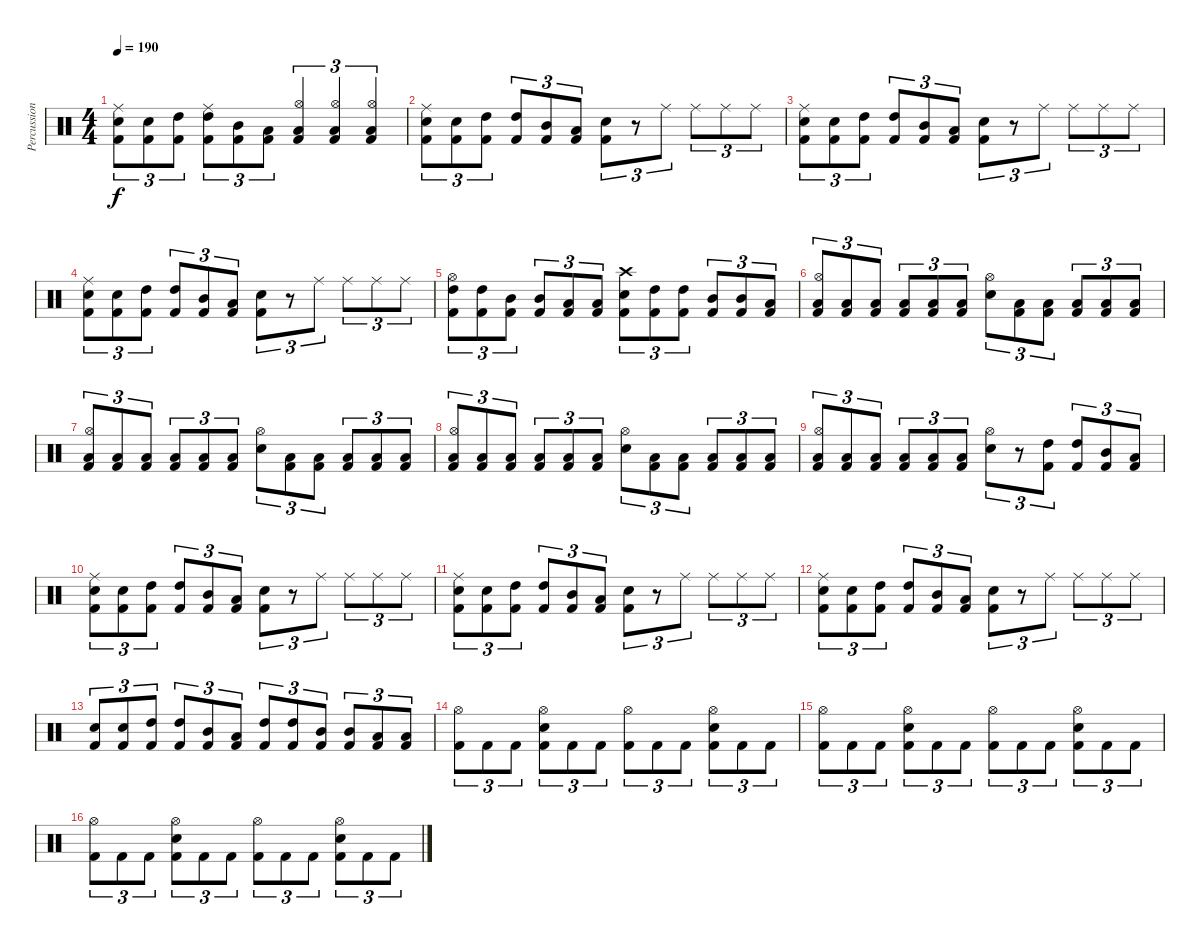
\track ("Percussions" "Percussion") {instrument percussion}
\staff {score}
\articulation defaults
\ts (4 4)
\tempo 190
\clef neutral
\ks c
("Ride (middle)" "Snare (hit) 2" "Kick (hit) 2").8{tu (3 2) dy f} ("Snare (hit) 2" "Kick (hit) 2").8{tu (3 2)} ("High Tom (hit)" "Kick (hit) 2").8{tu (3 2)} ("Ride (middle)" "High Tom (hit)" "Kick (hit) 2").8{tu (3 2)} ("Mid Tom (hit)" "Kick (hit) 2").8{tu (3 2)} ("Low Tom (hit)" "Kick (hit) 2").8{tu (3 2)} ("Hi-Hat (open)" "Low Floor Tom (hit)" "Kick (hit) 2").4{tu (3 2)} ("Hi-Hat (open)" "Low Floor Tom (hit)" "Kick (hit) 2").4{tu (3 2)} ("Hi-Hat (open)" "Low Floor Tom (hit)" "Kick (hit) 2").4{tu (3 2)} |
("Ride (middle)" "Snare (hit) 2" "Kick (hit) 2").8{tu (3 2)} ("Snare (hit) 2" "Kick (hit) 2").8{tu (3 2)} ("High Tom (hit)" "Kick (hit) 2").8{tu (3 2)} ("High Tom (hit)" "Kick (hit) 2").8{tu (3 2)} ("Mid Tom (hit)" "Kick (hit) 2").8{tu (3 2)} ("Low Tom (hit)" "Kick (hit) 2").8{tu (3 2)} ("Snare (hit) 2" "Kick (hit) 2").8{tu (3 2)} r.8{tu (3 2)} "Ride (middle)".8{tu (3 2)} "Ride (middle)".8{tu (3 2)} "Ride (middle)".8{tu (3 2)} "Ride (middle)".8{tu (3 2)} |
("Ride (middle)" "Snare (hit) 2" "Kick (hit) 2").8{tu (3 2)} ("Snare (hit) 2" "Kick (hit) 2").8{tu (3 2)} ("High Tom (hit)" "Kick (hit) 2").8{tu (3 2)} ("High Tom (hit)" "Kick (hit) 2").8{tu (3 2)} ("Mid Tom (hit)" "Kick (hit) 2").8{tu (3 2)} ("Low Tom (hit)" "Kick (hit) 2").8{tu (3 2)} ("Snare (hit) 2" "Kick (hit) 2").8{tu (3 2)} r.8{tu (3 2)} "Ride (middle)".8{tu (3 2)} "Ride (middle)".8{tu (3 2)} "Ride (middle)".8{tu (3 2)} "Ride (middle)".8{tu (3 2)} |
("Ride (middle)" "Snare (hit) 2" "Kick (hit) 2").8{tu (3 2)} ("Snare (hit) 2" "Kick (hit) 2").8{tu (3 2)} ("High Tom (hit)" "Kick (hit) 2").8{tu (3 2)} ("High Tom (hit)" "Kick (hit) 2").8{tu (3 2)} ("Mid Tom (hit)" "Kick (hit) 2").8{tu (3 2)} ("Low Tom (hit)" "Kick (hit) 2").8{tu (3 2)} ("Snare (hit) 2" "Kick (hit) 2").8{tu (3 2)} r.8{tu (3 2)} "Ride (middle)".8{tu (3 2)} "Ride (middle)".8{tu (3 2)} "Ride (middle)".8{tu (3 2)} "Ride (middle)".8{tu (3 2)} |
("Hi-Hat (open)" "High Tom (hit)" "Kick (hit) 2").8{tu (3 2)} ("High Tom (hit)" "Kick (hit) 2").8{tu (3 2)} ("Mid Tom (hit)" "Kick (hit) 2").8{tu (3 2)} ("Mid Tom (hit)" "Kick (hit) 2").8{tu (3 2)} ("Low Tom (hit)" "Kick (hit) 2").8{tu (3 2)} ("Low Tom (hit)" "Kick (hit) 2").8{tu (3 2)} ("Crash high (hit)" "Snare (hit) 2" "Kick (hit) 2").8{tu (3 2)} ("High Tom (hit)" "Kick (hit) 2").8{tu (3 2)} ("High Tom (hit)" "Kick (hit) 2").8{tu (3 2)} ("Mid Tom (hit)" "Kick (hit) 2").8{tu (3 2)} ("Mid Tom (hit)" "Kick (hit) 2").8{tu (3 2)} ("Low Tom (hit)" "Kick (hit) 2").8{tu (3 2)} |
("Hi-Hat (open)" "Low Floor Tom (hit)" "Kick (hit) 2").8{tu (3 2)} ("Low Floor Tom (hit)" "Kick (hit) 2").8{tu (3 2)} ("Low Floor Tom (hit)" "Kick (hit) 2").8{tu (3 2)} ("Low Floor Tom (hit)" "Kick (hit) 2").8{tu (3 2)} ("Low Floor Tom (hit)" "Kick (hit) 2").8{tu (3 2)} ("Low Floor Tom (hit)" "Kick (hit) 2").8{tu (3 2)} ("Hi-Hat (open)" "Snare (hit) 2").8{tu (3 2)} ("Low Floor Tom (hit)" "Kick (hit) 2").8{tu (3 2)} ("Low Floor Tom (hit)" "Kick (hit) 2").8{tu (3 2)} ("Low Floor Tom (hit)" "Kick (hit) 2").8{tu (3 2)} ("Low Floor Tom (hit)" "Kick (hit) 2").8{tu (3 2)} ("Low Floor Tom (hit)" "Kick (hit) 2").8{tu (3 2)} |
("Hi-Hat (open)" "Low Floor Tom (hit)" "Kick (hit) 2").8{tu (3 2)} ("Low Floor Tom (hit)" "Kick (hit) 2").8{tu (3 2)} ("Low Floor Tom (hit)" "Kick (hit) 2").8{tu (3 2)} ("Low Floor Tom (hit)" "Kick (hit) 2").8{tu (3 2)} ("Low Floor Tom (hit)" "Kick (hit) 2").8{tu (3 2)} ("Low Floor Tom (hit)" "Kick (hit) 2").8{tu (3 2)} ("Hi-Hat (open)" "Snare (hit) 2").8{tu (3 2)} ("Low Floor Tom (hit)" "Kick (hit) 2").8{tu (3 2)} ("Low Floor Tom (hit)" "Kick (hit) 2").8{tu (3 2)} ("Low Floor Tom (hit)" "Kick (hit) 2").8{tu (3 2)} ("Low Floor Tom (hit)" "Kick (hit) 2").8{tu (3 2)} ("Low Floor Tom (hit)" "Kick (hit) 2").8{tu (3 2)} |
("Hi-Hat (open)" "Low Floor Tom (hit)" "Kick (hit) 2").8{tu (3 2)} ("Low Floor Tom (hit)" "Kick (hit) 2").8{tu (3 2)} ("Low Floor Tom (hit)" "Kick (hit) 2").8{tu (3 2)} ("Low Floor Tom (hit)" "Kick (hit) 2").8{tu (3 2)} ("Low Floor Tom (hit)" "Kick (hit) 2").8{tu (3 2)} ("Low Floor Tom (hit)" "Kick (hit) 2").8{tu (3 2)} ("Hi-Hat (open)" "Snare (hit) 2").8{tu (3 2)} ("Low Floor Tom (hit)" "Kick (hit) 2").8{tu (3 2)} ("Low Floor Tom (hit)" "Kick (hit) 2").8{tu (3 2)} ("Low Floor Tom (hit)" "Kick (hit) 2").8{tu (3 2)} ("Low Floor Tom (hit)" "Kick (hit) 2").8{tu (3 2)} ("Low Floor Tom (hit)" "Kick (hit) 2").8{tu (3 2)} |
("Hi-Hat (open)" "Low Floor Tom (hit)" "Kick (hit) 2").8{tu (3 2)} ("Low Floor Tom (hit)" "Kick (hit) 2").8{tu (3 2)} ("Low Floor Tom (hit)" "Kick (hit) 2").8{tu (3 2)} ("Low Floor Tom (hit)" "Kick (hit) 2").8{tu (3 2)} ("Low Floor Tom (hit)" "Kick (hit) 2").8{tu (3 2)} ("Low Floor Tom (hit)" "Kick (hit) 2").8{tu (3 2)} ("Hi-Hat (open)" "Snare (hit) 2").8{tu (3 2)} r.8{tu (3 2)} ("High Tom (hit)" "Kick (hit) 2").8{tu (3 2)} ("High Tom (hit)" "Kick (hit) 2").8{tu (3 2)} ("Mid Tom (hit)" "Kick (hit) 2").8{tu (3 2)} ("Low Tom (hit)" "Kick (hit) 2").8{tu (3 2)} |
("Ride (middle)" "Snare (hit) 2" "Kick (hit) 2").8{tu (3 2)} ("Snare (hit) 2" "Kick (hit) 2").8{tu (3 2)} ("High Tom (hit)" "Kick (hit) 2").8{tu (3 2)} ("High Tom (hit)" "Kick (hit) 2").8{tu (3 2)} ("Mid Tom (hit)" "Kick (hit) 2").8{tu (3 2)} ("Low Tom (hit)" "Kick (hit) 2").8{tu (3 2)} ("Snare (hit) 2" "Kick (hit) 2").8{tu (3 2)} r.8{tu (3 2)} "Ride (middle)".8{tu (3 2)} "Ride (middle)".8{tu (3 2)} "Ride (middle)".8{tu (3 2)} "Ride (middle)".8{tu (3 2)} |
("Ride (middle)" "Snare (hit) 2" "Kick (hit) 2").8{tu (3 2)} ("Snare (hit) 2" "Kick (hit) 2").8{tu (3 2)} ("High Tom (hit)" "Kick (hit) 2").8{tu (3 2)} ("High Tom (hit)" "Kick (hit) 2").8{tu (3 2)} ("Mid Tom (hit)" "Kick (hit) 2").8{tu (3 2)} ("Low Tom (hit)" "Kick (hit) 2").8{tu (3 2)} ("Snare (hit) 2" "Kick (hit) 2").8{tu (3 2)} r.8{tu (3 2)} "Ride (middle)".8{tu (3 2)} "Ride (middle)".8{tu (3 2)} "Ride (middle)".8{tu (3 2)} "Ride (middle)".8{tu (3 2)} |
("Ride (middle)" "Snare (hit) 2" "Kick (hit) 2").8{tu (3 2)} ("Snare (hit) 2" "Kick (hit) 2").8{tu (3 2)} ("High Tom (hit)" "Kick (hit) 2").8{tu (3 2)} ("High Tom (hit)" "Kick (hit) 2").8{tu (3 2)} ("Mid Tom (hit)" "Kick (hit) 2").8{tu (3 2)} ("Low Tom (hit)" "Kick (hit) 2").8{tu (3 2)} ("Snare (hit) 2" "Kick (hit) 2").8{tu (3 2)} r.8{tu (3 2)} "Ride (middle)".8{tu (3 2)} "Ride (middle)".8{tu (3 2)} "Ride (middle)".8{tu (3 2)} "Ride (middle)".8{tu (3 2)} |
("Snare (hit) 2" "Kick (hit) 2").8{tu (3 2)} ("Snare (hit) 2" "Kick (hit) 2").8{tu (3 2)} ("High Tom (hit)" "Kick (hit) 2").8{tu (3 2)} ("High Tom (hit)" "Kick (hit) 2").8{tu (3 2)} ("Mid Tom (hit)" "Kick (hit) 2").8{tu (3 2)} ("Low Tom (hit)" "Kick (hit) 2").8{tu (3 2)} ("High Tom (hit)" "Kick (hit) 2").8{tu (3 2)} ("High Tom (hit)" "Kick (hit) 2").8{tu (3 2)} ("Mid Tom (hit)" "Kick (hit) 2").8{tu (3 2)} ("Mid Tom (hit)" "Kick (hit) 2").8{tu (3 2)} ("Low Tom (hit)" "Kick (hit) 2").8{tu (3 2)} ("Low Tom (hit)" "Kick (hit) 2").8{tu (3 2)} |
("Hi-Hat (open)" "Kick (hit) 2").8{tu (3 2)} "Kick (hit) 2".8{tu (3 2)} "Kick (hit) 2".8{tu (3 2)} ("Hi-Hat (open)" "Snare (hit) 2" "Kick (hit) 2").8{tu (3 2)} "Kick (hit) 2".8{tu (3 2)} "Kick (hit) 2".8{tu (3 2)} ("Hi-Hat (open)" "Kick (hit) 2").8{tu (3 2)} "Kick (hit) 2".8{tu (3 2)} "Kick (hit) 2".8{tu (3 2)} ("Hi-Hat (open)" "Snare (hit) 2" "Kick (hit) 2").8{tu (3 2)} "Kick (hit) 2".8{tu (3 2)} "Kick (hit) 2".8{tu (3 2)} |
("Hi-Hat (open)" "Kick (hit) 2").8{tu (3 2)} "Kick (hit) 2".8{tu (3 2)} "Kick (hit) 2".8{tu (3 2)} ("Hi-Hat (open)" "Snare (hit) 2" "Kick (hit) 2").8{tu (3 2)} "Kick (hit) 2".8{tu (3 2)} "Kick (hit) 2".8{tu (3 2)} ("Hi-Hat (open)" "Kick (hit) 2").8{tu (3 2)} "Kick (hit) 2".8{tu (3 2)} "Kick (hit) 2".8{tu (3 2)} ("Hi-Hat (open)" "Snare (hit) 2" "Kick (hit) 2").8{tu (3 2)} "Kick (hit) 2".8{tu (3 2)} "Kick (hit) 2".8{tu (3 2)} |
("Hi-Hat (open)" "Kick (hit) 2").8{tu (3 2)} "Kick (hit) 2".8{tu (3 2)} "Kick (hit) 2".8{tu (3 2)} ("Hi-Hat (open)" "Snare (hit) 2" "Kick (hit) 2").8{tu (3 2)} "Kick (hit) 2".8{tu (3 2)} "Kick (hit) 2".8{tu (3 2)} ("Hi-Hat (open)" "Kick (hit) 2").8{tu (3 2)} "Kick (hit) 2".8{tu (3 2)} "Kick (hit) 2".8{tu (3 2)} ("Hi-Hat (open)" "Snare (hit) 2" "Kick (hit) 2").8{tu (3 2)} "Kick (hit) 2".8{tu (3 2)} "Kick (hit) 2".8{tu (3 2)}
